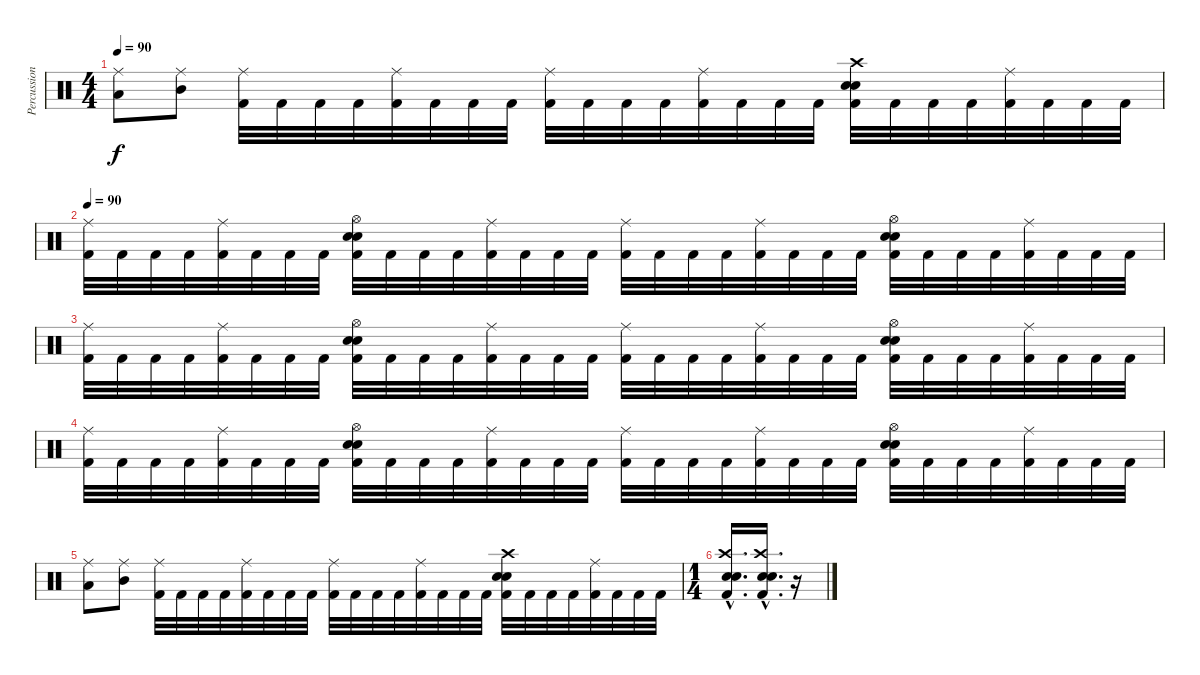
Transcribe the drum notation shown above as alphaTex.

\track ("Percussion" "Percussion") {instrument percussion}
\staff {score}
\articulation defaults
\ts (4 4)
\tempo 90
\clef neutral
\ks c
("Ride (middle)" "Low Tom (hit)").8{dy f} ("Ride (middle)" "Mid Tom (hit)").8 ("Ride (middle)" "Kick (hit) 2").32 "Kick (hit) 2".32 "Kick (hit) 2".32 "Kick (hit) 2".32 ("Ride (middle)" "Kick (hit) 2").32 "Kick (hit) 2".32 "Kick (hit) 2".32 "Kick (hit) 2".32 ("Ride (middle)" "Kick (hit) 2").32 "Kick (hit) 2".32 "Kick (hit) 2".32 "Kick (hit) 2".32 ("Ride (middle)" "Kick (hit) 2").32 "Kick (hit) 2".32 "Kick (hit) 2".32 "Kick (hit) 2".32 ("Crash high (hit)" "Snare (hit) 2" "Electric Snare (hit)" "Kick (hit) 2").32 "Kick (hit) 2".32 "Kick (hit) 2".32 "Kick (hit) 2".32 ("Ride (middle)" "Kick (hit) 2").32 "Kick (hit) 2".32 "Kick (hit) 2".32 "Kick (hit) 2".32 |
\tempo 90
("Ride (middle)" "Kick (hit) 2").32 "Kick (hit) 2".32 "Kick (hit) 2".32 "Kick (hit) 2".32 ("Ride (middle)" "Kick (hit) 2").32 "Kick (hit) 2".32 "Kick (hit) 2".32 "Kick (hit) 2".32 ("Hi-Hat (open)" "Electric Snare (hit)" "Snare (hit) 2" "Kick (hit) 2").32 "Kick (hit) 2".32 "Kick (hit) 2".32 "Kick (hit) 2".32 ("Ride (middle)" "Kick (hit) 2").32 "Kick (hit) 2".32 "Kick (hit) 2".32 "Kick (hit) 2".32 ("Ride (middle)" "Kick (hit) 2").32 "Kick (hit) 2".32 "Kick (hit) 2".32 "Kick (hit) 2".32 ("Ride (middle)" "Kick (hit) 2").32 "Kick (hit) 2".32 "Kick (hit) 2".32 "Kick (hit) 2".32 ("Hi-Hat (open)" "Electric Snare (hit)" "Snare (hit) 2" "Kick (hit) 2").32 "Kick (hit) 2".32 "Kick (hit) 2".32 "Kick (hit) 2".32 ("Ride (middle)" "Kick (hit) 2").32 "Kick (hit) 2".32 "Kick (hit) 2".32 "Kick (hit) 2".32 |
("Ride (middle)" "Kick (hit) 2").32 "Kick (hit) 2".32 "Kick (hit) 2".32 "Kick (hit) 2".32 ("Ride (middle)" "Kick (hit) 2").32 "Kick (hit) 2".32 "Kick (hit) 2".32 "Kick (hit) 2".32 ("Hi-Hat (open)" "Snare (hit) 2" "Electric Snare (hit)" "Kick (hit) 2").32 "Kick (hit) 2".32 "Kick (hit) 2".32 "Kick (hit) 2".32 ("Ride (middle)" "Kick (hit) 2").32 "Kick (hit) 2".32 "Kick (hit) 2".32 "Kick (hit) 2".32 ("Ride (middle)" "Kick (hit) 2").32 "Kick (hit) 2".32 "Kick (hit) 2".32 "Kick (hit) 2".32 ("Ride (middle)" "Kick (hit) 2").32 "Kick (hit) 2".32 "Kick (hit) 2".32 "Kick (hit) 2".32 ("Hi-Hat (open)" "Snare (hit) 2" "Electric Snare (hit)" "Kick (hit) 2").32 "Kick (hit) 2".32 "Kick (hit) 2".32 "Kick (hit) 2".32 ("Ride (middle)" "Kick (hit) 2").32 "Kick (hit) 2".32 "Kick (hit) 2".32 "Kick (hit) 2".32 |
("Ride (middle)" "Kick (hit) 2").32 "Kick (hit) 2".32 "Kick (hit) 2".32 "Kick (hit) 2".32 ("Ride (middle)" "Kick (hit) 2").32 "Kick (hit) 2".32 "Kick (hit) 2".32 "Kick (hit) 2".32 ("Hi-Hat (open)" "Electric Snare (hit)" "Snare (hit) 2" "Kick (hit) 2").32 "Kick (hit) 2".32 "Kick (hit) 2".32 "Kick (hit) 2".32 ("Ride (middle)" "Kick (hit) 2").32 "Kick (hit) 2".32 "Kick (hit) 2".32 "Kick (hit) 2".32 ("Ride (middle)" "Kick (hit) 2").32 "Kick (hit) 2".32 "Kick (hit) 2".32 "Kick (hit) 2".32 ("Ride (middle)" "Kick (hit) 2").32 "Kick (hit) 2".32 "Kick (hit) 2".32 "Kick (hit) 2".32 ("Hi-Hat (open)" "Electric Snare (hit)" "Snare (hit) 2" "Kick (hit) 2").32 "Kick (hit) 2".32 "Kick (hit) 2".32 "Kick (hit) 2".32 ("Ride (middle)" "Kick (hit) 2").32 "Kick (hit) 2".32 "Kick (hit) 2".32 "Kick (hit) 2".32 |
("Ride (middle)" "Low Tom (hit)").8 ("Ride (middle)" "Mid Tom (hit)").8 ("Ride (middle)" "Kick (hit) 2").32 "Kick (hit) 2".32 "Kick (hit) 2".32 "Kick (hit) 2".32 ("Ride (middle)" "Kick (hit) 2").32 "Kick (hit) 2".32 "Kick (hit) 2".32 "Kick (hit) 2".32 ("Ride (middle)" "Kick (hit) 2").32 "Kick (hit) 2".32 "Kick (hit) 2".32 "Kick (hit) 2".32 ("Ride (middle)" "Kick (hit) 2").32 "Kick (hit) 2".32 "Kick (hit) 2".32 "Kick (hit) 2".32 ("Crash high (hit)" "Snare (hit) 2" "Electric Snare (hit)" "Kick (hit) 2").32 "Kick (hit) 2".32 "Kick (hit) 2".32 "Kick (hit) 2".32 ("Ride (middle)" "Kick (hit) 2").32 "Kick (hit) 2".32 "Kick (hit) 2".32 "Kick (hit) 2".32 |
\ts (1 4)
("Crash high (hit)"{hac} "Snare (hit) 2"{hac} "Electric Snare (hit)"{hac} "Kick (hit) 2"{hac}).16{d} ("Crash high (hit)"{hac} "Snare (hit) 2"{hac} "Electric Snare (hit)"{hac} "Kick (hit) 2"{hac}).16{d} r.16
